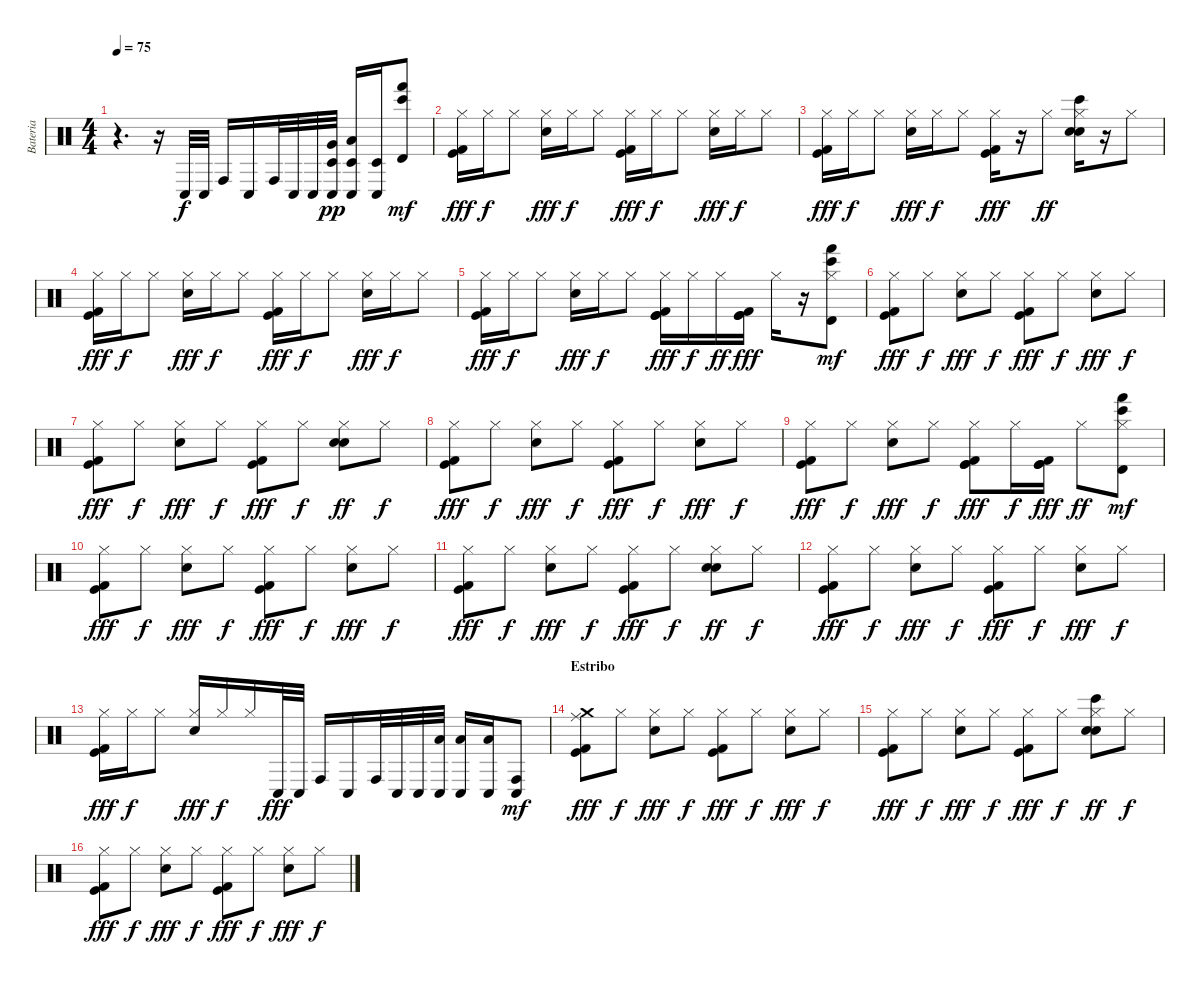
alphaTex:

\track ("Bateria" "Bateria") {instrument percussion}
\staff {score}
\articulation defaults
\ts (4 4)
\tempo 75
\clef neutral
\ks c
r.4{d dy f} r.16 "Conga low (hit)".32 "Conga low (hit)".32 "Conga high (hit)".16 "Conga low (hit)".16{balance 1} "Conga high (hit)".32 "Conga low (hit)".32 "Conga low (hit)".32 ("Very Low Tom (hit)" "Conga low (hit)" "Timbale low (hit)").32{dy pp} ("Low Floor Tom (hit)" "Conga low (hit)" "Timbale low (hit)").16 ("Conga low (hit)" "Timbale low (hit)").16 ("Hand (hit)" "Bongo High (hit)" "Timbale high (hit)").8{dy mf} |
("Hi-Hat (closed)" "Kick (hit) 2" "Kick (hit)").16{dy fff balance 10} "Hi-Hat (closed)".16{dy f} "Hi-Hat (closed)".8 ("Hi-Hat (closed)" "Snare (hit) 2").16{dy fff} "Hi-Hat (closed)".16{dy f} "Hi-Hat (closed)".8 ("Hi-Hat (closed)" "Kick (hit) 2" "Kick (hit)").16{dy fff} "Hi-Hat (closed)".16{dy f} "Hi-Hat (closed)".8 ("Hi-Hat (closed)" "Snare (hit) 2").16{dy fff} "Hi-Hat (closed)".16{dy f} "Hi-Hat (closed)".8 |
("Hi-Hat (closed)" "Kick (hit) 2" "Kick (hit)").16{dy fff} "Hi-Hat (closed)".16{dy f} "Hi-Hat (closed)".8 ("Hi-Hat (closed)" "Snare (hit) 2").16{dy fff} "Hi-Hat (closed)".16{dy f} "Hi-Hat (closed)".8 ("Hi-Hat (closed)" "Kick (hit) 2" "Kick (hit)").16{dy fff} r.16 "Hi-Hat (closed)".8{dy ff} ("Hi-Hat (closed)" "Bongo High (hit)" "Snare (hit) 2" "Electric Snare (hit)").16 r.16 "Hi-Hat (closed)".8 |
("Hi-Hat (closed)" "Kick (hit) 2" "Kick (hit)").16{dy fff} "Hi-Hat (closed)".16{dy f} "Hi-Hat (closed)".8 ("Hi-Hat (closed)" "Snare (hit) 2").16{dy fff} "Hi-Hat (closed)".16{dy f} "Hi-Hat (closed)".8 ("Hi-Hat (closed)" "Kick (hit) 2" "Kick (hit)").16{dy fff} "Hi-Hat (closed)".16{dy f} "Hi-Hat (closed)".8 ("Hi-Hat (closed)" "Snare (hit) 2").16{dy fff} "Hi-Hat (closed)".16{dy f} "Hi-Hat (closed)".8 |
("Hi-Hat (closed)" "Kick (hit) 2" "Kick (hit)").16{dy fff} "Hi-Hat (closed)".16{dy f} "Hi-Hat (closed)".8 ("Hi-Hat (closed)" "Snare (hit) 2").16{dy fff} "Hi-Hat (closed)".16{dy f} "Hi-Hat (closed)".8 ("Hi-Hat (closed)" "Kick (hit)" "Kick (hit) 2" "Kick (hit)").16{dy fff} "Hi-Hat (closed)".16{dy f} "Hi-Hat (closed)".16{dy ff} ("Kick (hit)" "Kick (hit) 2" "Kick (hit)").16{dy fff} "Hi-Hat (closed)".16 r.16 ("Hi-Hat (closed)" "Hand (hit)" "Bongo High (hit)" "Timbale high (hit)").8{dy mf} |
("Hi-Hat (closed)" "Kick (hit) 2" "Kick (hit)").8{dy fff} "Hi-Hat (closed)".8{dy f} ("Hi-Hat (closed)" "Snare (hit) 2").8{dy fff} "Hi-Hat (closed)".8{dy f} ("Hi-Hat (closed)" "Kick (hit) 2" "Kick (hit)").8{dy fff} "Hi-Hat (closed)".8{dy f} ("Hi-Hat (closed)" "Snare (hit) 2").8{dy fff} "Hi-Hat (closed)".8{dy f} |
("Hi-Hat (closed)" "Kick (hit) 2" "Kick (hit)").8{dy fff} "Hi-Hat (closed)".8{dy f} ("Hi-Hat (closed)" "Snare (hit) 2").8{dy fff} "Hi-Hat (closed)".8{dy f} ("Hi-Hat (closed)" "Kick (hit) 2" "Kick (hit)").8{dy fff} "Hi-Hat (closed)".8{dy f} ("Hi-Hat (closed)" "Snare (hit) 2" "Electric Snare (hit)").8{dy ff} "Hi-Hat (closed)".8{dy f} |
("Hi-Hat (closed)" "Kick (hit) 2" "Kick (hit)").8{dy fff} "Hi-Hat (closed)".8{dy f} ("Hi-Hat (closed)" "Snare (hit) 2").8{dy fff} "Hi-Hat (closed)".8{dy f} ("Hi-Hat (closed)" "Kick (hit) 2" "Kick (hit)").8{dy fff} "Hi-Hat (closed)".8{dy f} ("Hi-Hat (closed)" "Snare (hit) 2").8{dy fff} "Hi-Hat (closed)".8{dy f} |
("Hi-Hat (closed)" "Kick (hit) 2" "Kick (hit)").8{dy fff} "Hi-Hat (closed)".8{dy f} ("Hi-Hat (closed)" "Snare (hit) 2").8{dy fff} "Hi-Hat (closed)".8{dy f} ("Hi-Hat (closed)" "Kick (hit)" "Kick (hit) 2" "Kick (hit)").8{dy fff} "Hi-Hat (closed)".16{dy f} ("Kick (hit)" "Kick (hit) 2" "Kick (hit)").16{dy fff} "Hi-Hat (closed)".8{dy ff} ("Hi-Hat (closed)" "Hand (hit)" "Bongo High (hit)" "Timbale high (hit)").8{dy mf} |
("Hi-Hat (closed)" "Kick (hit) 2" "Kick (hit)").8{dy fff} "Hi-Hat (closed)".8{dy f} ("Hi-Hat (closed)" "Snare (hit) 2").8{dy fff} "Hi-Hat (closed)".8{dy f} ("Hi-Hat (closed)" "Kick (hit) 2" "Kick (hit)").8{dy fff} "Hi-Hat (closed)".8{dy f} ("Hi-Hat (closed)" "Snare (hit) 2").8{dy fff} "Hi-Hat (closed)".8{dy f} |
("Hi-Hat (closed)" "Kick (hit) 2" "Kick (hit)").8{dy fff} "Hi-Hat (closed)".8{dy f} ("Hi-Hat (closed)" "Snare (hit) 2").8{dy fff} "Hi-Hat (closed)".8{dy f} ("Hi-Hat (closed)" "Kick (hit) 2" "Kick (hit)").8{dy fff} "Hi-Hat (closed)".8{dy f} ("Hi-Hat (closed)" "Snare (hit) 2" "Electric Snare (hit)").8{dy ff} "Hi-Hat (closed)".8{dy f} |
("Hi-Hat (closed)" "Kick (hit) 2" "Kick (hit)").8{dy fff} "Hi-Hat (closed)".8{dy f} ("Hi-Hat (closed)" "Snare (hit) 2").8{dy fff} "Hi-Hat (closed)".8{dy f} ("Hi-Hat (closed)" "Kick (hit) 2" "Kick (hit)").8{dy fff} "Hi-Hat (closed)".8{dy f} ("Hi-Hat (closed)" "Snare (hit) 2").8{dy fff} "Hi-Hat (closed)".8{dy f} |
("Hi-Hat (closed)" "Kick (hit) 2" "Kick (hit)").16{dy fff} "Hi-Hat (closed)".16{dy f} "Hi-Hat (closed)".8 ("Hi-Hat (closed)" "Snare (hit) 2").16{dy fff} "Hi-Hat (closed)".16{dy f} "Hi-Hat (closed)".16 "Conga low (hit)".32{dy fff} "Conga low (hit)".32 "Conga high (hit)".16 "Conga low (hit)".16 "Conga high (hit)".32 "Conga low (hit)".32 "Conga low (hit)".32 ("Low Floor Tom (hit)" "Conga low (hit)").32 ("Low Floor Tom (hit)" "Conga low (hit)").16 ("Low Floor Tom (hit)" "Conga low (hit)").16 ("Conga low (hit)" "Conga high (hit)").8{dy mf} |
\section ("" "Estribo")
("Crash medium (hit)" "Ride (middle)" "Kick (hit) 2" "Kick (hit)").8{dy fff} "Hi-Hat (closed)".8{dy f} ("Hi-Hat (closed)" "Snare (hit) 2").8{dy fff} "Hi-Hat (closed)".8{dy f} ("Hi-Hat (closed)" "Kick (hit) 2" "Kick (hit)").8{dy fff} "Hi-Hat (closed)".8{dy f} ("Hi-Hat (closed)" "Snare (hit) 2").8{dy fff} "Hi-Hat (closed)".8{dy f} |
("Hi-Hat (closed)" "Kick (hit) 2" "Kick (hit)").8{dy fff} "Hi-Hat (closed)".8{dy f} ("Hi-Hat (closed)" "Snare (hit) 2").8{dy fff} "Hi-Hat (closed)".8{dy f} ("Hi-Hat (closed)" "Kick (hit) 2" "Kick (hit)").8{dy fff} "Hi-Hat (closed)".8{dy f} ("Hi-Hat (closed)" "Bongo High (hit)" "Snare (hit) 2" "Electric Snare (hit)").8{dy ff} "Hi-Hat (closed)".8{dy f} |
("Hi-Hat (closed)" "Kick (hit) 2" "Kick (hit)").8{dy fff} "Hi-Hat (closed)".8{dy f} ("Hi-Hat (closed)" "Snare (hit) 2").8{dy fff} "Hi-Hat (closed)".8{dy f} ("Hi-Hat (closed)" "Kick (hit) 2" "Kick (hit)").8{dy fff} "Hi-Hat (closed)".8{dy f} ("Hi-Hat (closed)" "Snare (hit) 2").8{dy fff} "Hi-Hat (closed)".8{dy f}
